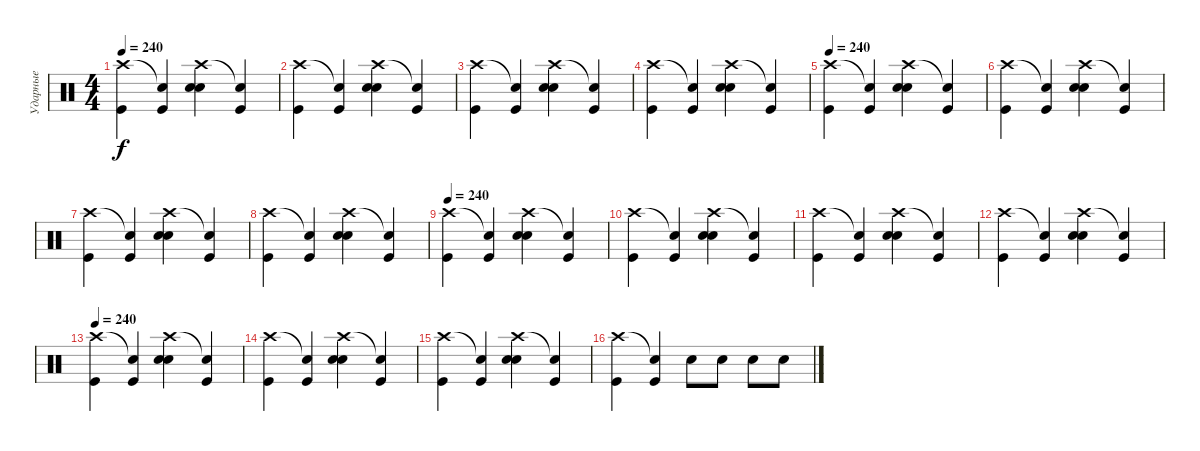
\track ("Ударные" "Ударные") {instrument percussion}
\staff {score}
\articulation defaults
\ts (4 4)
\tempo 240
\clef neutral
\ks c
("Crash high (hit)" "Kick (hit)").4{dy f} ("Snare (hit)"{t} "Kick (hit)").4 ("Crash high (hit)" "Electric Snare (hit)" "Snare (hit) 2").4 ("Snare (hit)"{t} "Kick (hit)").4 |
("Crash high (hit)" "Kick (hit)").4 ("Snare (hit)"{t} "Kick (hit)").4 ("Crash high (hit)" "Electric Snare (hit)" "Snare (hit) 2").4 ("Snare (hit)"{t} "Kick (hit)").4 |
("Crash high (hit)" "Kick (hit)").4 ("Snare (hit)"{t} "Kick (hit)").4 ("Crash high (hit)" "Electric Snare (hit)" "Snare (hit) 2").4 ("Snare (hit)"{t} "Kick (hit)").4 |
("Crash high (hit)" "Kick (hit)").4 ("Snare (hit)"{t} "Kick (hit)").4 ("Crash high (hit)" "Electric Snare (hit)" "Snare (hit) 2").4 ("Snare (hit)"{t} "Kick (hit)").4 |
\tempo 240
("Crash high (hit)" "Kick (hit)").4 ("Snare (hit)"{t} "Kick (hit)").4 ("Crash high (hit)" "Electric Snare (hit)" "Snare (hit) 2").4 ("Snare (hit)"{t} "Kick (hit)").4 |
("Crash high (hit)" "Kick (hit)").4 ("Snare (hit)"{t} "Kick (hit)").4 ("Crash high (hit)" "Electric Snare (hit)" "Snare (hit) 2").4 ("Snare (hit)"{t} "Kick (hit)").4 |
("Crash high (hit)" "Kick (hit)").4 ("Snare (hit)"{t} "Kick (hit)").4 ("Crash high (hit)" "Electric Snare (hit)" "Snare (hit) 2").4 ("Snare (hit)"{t} "Kick (hit)").4 |
("Crash high (hit)" "Kick (hit)").4 ("Snare (hit)"{t} "Kick (hit)").4 ("Crash high (hit)" "Electric Snare (hit)" "Snare (hit) 2").4 ("Snare (hit)"{t} "Kick (hit)").4 |
\tempo 240
("Crash high (hit)" "Kick (hit)").4 ("Snare (hit)"{t} "Kick (hit)").4 ("Crash high (hit)" "Electric Snare (hit)" "Snare (hit) 2").4 ("Snare (hit)"{t} "Kick (hit)").4 |
("Crash high (hit)" "Kick (hit)").4 ("Snare (hit)"{t} "Kick (hit)").4 ("Crash high (hit)" "Electric Snare (hit)" "Snare (hit) 2").4 ("Snare (hit)"{t} "Kick (hit)").4 |
("Crash high (hit)" "Kick (hit)").4 ("Snare (hit)"{t} "Kick (hit)").4 ("Crash high (hit)" "Electric Snare (hit)" "Snare (hit) 2").4 ("Snare (hit)"{t} "Kick (hit)").4 |
("Crash high (hit)" "Kick (hit)").4 ("Snare (hit)"{t} "Kick (hit)").4 ("Crash high (hit)" "Electric Snare (hit)" "Snare (hit) 2").4 ("Snare (hit)"{t} "Kick (hit)").4 |
\tempo 240
("Crash high (hit)" "Kick (hit)").4 ("Snare (hit)"{t} "Kick (hit)").4 ("Crash high (hit)" "Electric Snare (hit)" "Snare (hit) 2").4 ("Snare (hit)"{t} "Kick (hit)").4 |
("Crash high (hit)" "Kick (hit)").4 ("Snare (hit)"{t} "Kick (hit)").4 ("Crash high (hit)" "Electric Snare (hit)" "Snare (hit) 2").4 ("Snare (hit)"{t} "Kick (hit)").4 |
("Crash high (hit)" "Kick (hit)").4 ("Snare (hit)"{t} "Kick (hit)").4 ("Crash high (hit)" "Electric Snare (hit)" "Snare (hit) 2").4 ("Snare (hit)"{t} "Kick (hit)").4 |
("Crash high (hit)" "Kick (hit)").4 ("Snare (hit)"{t} "Kick (hit)").4 "Electric Snare (hit)".8 "Electric Snare (hit)".8 "Electric Snare (hit)".8 "Electric Snare (hit)".8
